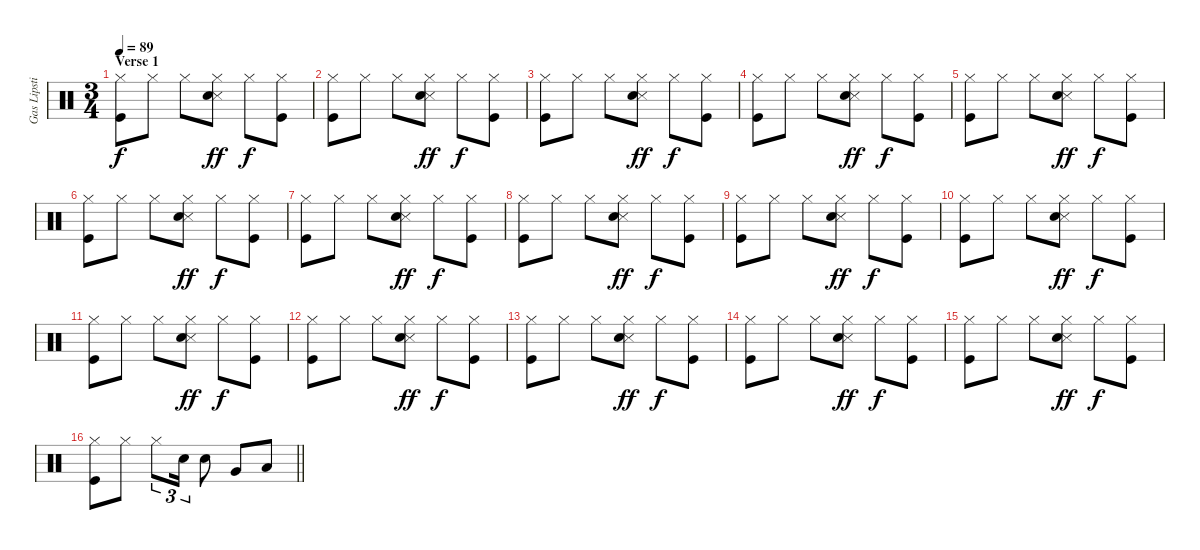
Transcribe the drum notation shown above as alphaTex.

\track ("Gas Lipstick (Drums)" "Gas Lipsti") {instrument percussion}
\staff {score}
\articulation defaults
\ts (3 4)
\section ("" "Verse 1")
\tempo 89
\clef neutral
\ks c
("Hi-Hat (closed)" "Kick (hit)").8{dy f} "Hi-Hat (closed)".8 "Hi-Hat (closed)".8 ("Snare (side stick) 3" "Hi-Hat (closed)" "Snare (hit) 2").8{dy ff} "Hi-Hat (closed)".8{dy f} ("Hi-Hat (closed)" "Kick (hit)").8 |
("Hi-Hat (closed)" "Kick (hit)").8 "Hi-Hat (closed)".8 "Hi-Hat (closed)".8 ("Snare (side stick) 3" "Hi-Hat (closed)" "Snare (hit) 2").8{dy ff} "Hi-Hat (closed)".8{dy f} ("Hi-Hat (closed)" "Kick (hit)").8 |
("Hi-Hat (closed)" "Kick (hit)").8 "Hi-Hat (closed)".8 "Hi-Hat (closed)".8 ("Snare (side stick) 3" "Hi-Hat (closed)" "Snare (hit) 2").8{dy ff} "Hi-Hat (closed)".8{dy f} ("Hi-Hat (closed)" "Kick (hit)").8 |
("Hi-Hat (closed)" "Kick (hit)").8 "Hi-Hat (closed)".8 "Hi-Hat (closed)".8 ("Snare (side stick) 3" "Hi-Hat (closed)" "Snare (hit) 2").8{dy ff} "Hi-Hat (closed)".8{dy f} ("Hi-Hat (closed)" "Kick (hit)").8 |
("Hi-Hat (closed)" "Kick (hit)").8 "Hi-Hat (closed)".8 "Hi-Hat (closed)".8 ("Snare (side stick) 3" "Hi-Hat (closed)" "Snare (hit) 2").8{dy ff} "Hi-Hat (closed)".8{dy f} ("Hi-Hat (closed)" "Kick (hit)").8 |
("Hi-Hat (closed)" "Kick (hit)").8 "Hi-Hat (closed)".8 "Hi-Hat (closed)".8 ("Snare (side stick) 3" "Hi-Hat (closed)" "Snare (hit) 2").8{dy ff} "Hi-Hat (closed)".8{dy f} ("Hi-Hat (closed)" "Kick (hit)").8 |
("Hi-Hat (closed)" "Kick (hit)").8 "Hi-Hat (closed)".8 "Hi-Hat (closed)".8 ("Snare (side stick) 3" "Hi-Hat (closed)" "Snare (hit) 2").8{dy ff} "Hi-Hat (closed)".8{dy f} ("Hi-Hat (closed)" "Kick (hit)").8 |
("Hi-Hat (closed)" "Kick (hit)").8 "Hi-Hat (closed)".8 "Hi-Hat (closed)".8 ("Snare (side stick) 3" "Hi-Hat (closed)" "Snare (hit) 2").8{dy ff} "Hi-Hat (closed)".8{dy f} ("Hi-Hat (closed)" "Kick (hit)").8 |
("Hi-Hat (closed)" "Kick (hit)").8 "Hi-Hat (closed)".8 "Hi-Hat (closed)".8 ("Snare (side stick) 3" "Hi-Hat (closed)" "Snare (hit) 2").8{dy ff} "Hi-Hat (closed)".8{dy f} ("Hi-Hat (closed)" "Kick (hit)").8 |
("Hi-Hat (closed)" "Kick (hit)").8 "Hi-Hat (closed)".8 "Hi-Hat (closed)".8 ("Snare (side stick) 3" "Hi-Hat (closed)" "Snare (hit) 2").8{dy ff} "Hi-Hat (closed)".8{dy f} ("Hi-Hat (closed)" "Kick (hit)").8 |
("Hi-Hat (closed)" "Kick (hit)").8 "Hi-Hat (closed)".8 "Hi-Hat (closed)".8 ("Snare (side stick) 3" "Hi-Hat (closed)" "Snare (hit) 2").8{dy ff} "Hi-Hat (closed)".8{dy f} ("Hi-Hat (closed)" "Kick (hit)").8 |
("Hi-Hat (closed)" "Kick (hit)").8 "Hi-Hat (closed)".8 "Hi-Hat (closed)".8 ("Snare (side stick) 3" "Hi-Hat (closed)" "Snare (hit) 2").8{dy ff} "Hi-Hat (closed)".8{dy f} ("Hi-Hat (closed)" "Kick (hit)").8 |
("Hi-Hat (closed)" "Kick (hit)").8 "Hi-Hat (closed)".8 "Hi-Hat (closed)".8 ("Snare (side stick) 3" "Hi-Hat (closed)" "Snare (hit) 2").8{dy ff} "Hi-Hat (closed)".8{dy f} ("Hi-Hat (closed)" "Kick (hit)").8 |
("Hi-Hat (closed)" "Kick (hit)").8 "Hi-Hat (closed)".8 "Hi-Hat (closed)".8 ("Snare (side stick) 3" "Hi-Hat (closed)" "Snare (hit) 2").8{dy ff} "Hi-Hat (closed)".8{dy f} ("Hi-Hat (closed)" "Kick (hit)").8 |
("Hi-Hat (closed)" "Kick (hit)").8 "Hi-Hat (closed)".8 "Hi-Hat (closed)".8 ("Snare (side stick) 3" "Hi-Hat (closed)" "Snare (hit) 2").8{dy ff} "Hi-Hat (closed)".8{dy f} ("Hi-Hat (closed)" "Kick (hit)").8 |
\barLineRight lightlight
("Hi-Hat (closed)" "Kick (hit)").8 "Hi-Hat (closed)".8 "Hi-Hat (closed)".8{tu (3 2)} "Snare (hit) 2".16{tu (3 2)} "Snare (hit) 2".8 "Very Low Tom (hit)".8 "Low Floor Tom (hit)".8
